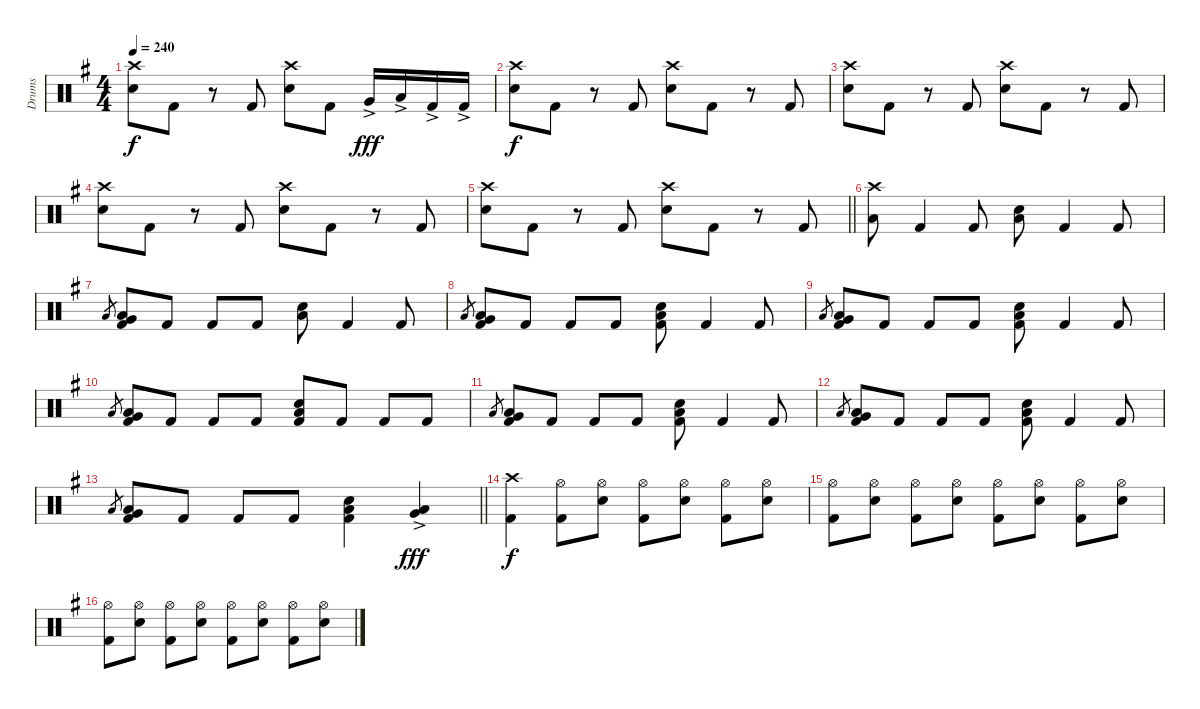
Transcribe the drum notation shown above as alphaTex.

\track ("Drums" "Drums") {instrument percussion}
\staff {score}
\articulation defaults
\ts (4 4)
\tempo 240
\clef neutral
\ks eminor
("Crash high (hit)" "Snare (hit) 2").8{dy f} "Kick (hit) 2".8 r.8 "Kick (hit) 2".8 ("Crash high (hit)" "Snare (hit) 2").8 "Kick (hit) 2".8 "Very Low Tom (hit)"{ac}.16{dy fff} "Low Tom (hit)"{ac}.16 "Kick (hit) 2"{ac}.16 "Kick (hit) 2"{ac}.16 |
("Crash high (hit)" "Snare (hit) 2").8{dy f} "Kick (hit) 2".8 r.8 "Kick (hit) 2".8 ("Crash high (hit)" "Snare (hit) 2").8 "Kick (hit) 2".8 r.8 "Kick (hit) 2".8 |
("Crash high (hit)" "Snare (hit) 2").8 "Kick (hit) 2".8 r.8 "Kick (hit) 2".8 ("Crash high (hit)" "Snare (hit) 2").8 "Kick (hit) 2".8 r.8 "Kick (hit) 2".8 |
("Crash high (hit)" "Snare (hit) 2").8 "Kick (hit) 2".8 r.8 "Kick (hit) 2".8 ("Crash high (hit)" "Snare (hit) 2").8 "Kick (hit) 2".8 r.8 "Kick (hit) 2".8 |
\barLineRight lightlight
("Crash high (hit)" "Snare (hit) 2").8 "Kick (hit) 2".8 r.8 "Kick (hit) 2".8 ("Crash high (hit)" "Snare (hit) 2").8 "Kick (hit) 2".8 r.8 "Kick (hit) 2".8 |
("Crash high (hit)" "Low Tom (hit)").8 "Kick (hit) 2".4 "Kick (hit) 2".8 ("Snare (hit) 2" "Low Tom (hit)").8 "Kick (hit) 2".4 "Kick (hit) 2".8 |
"Low Tom (hit)".8{gr} ("Low Tom (hit)" "Very Low Tom (hit)" "Kick (hit) 2").8 "Kick (hit) 2".8 "Kick (hit) 2".8 "Kick (hit) 2".8 ("Snare (hit) 2" "Low Tom (hit)").8 "Kick (hit) 2".4 "Kick (hit) 2".8 |
"Low Tom (hit)".8{gr} ("Low Tom (hit)" "Very Low Tom (hit)" "Kick (hit) 2").8 "Kick (hit) 2".8 "Kick (hit) 2".8 "Kick (hit) 2".8 ("Snare (hit) 2" "Low Tom (hit)" "Kick (hit) 2").8 "Kick (hit) 2".4 "Kick (hit) 2".8 |
"Low Tom (hit)".8{gr} ("Low Tom (hit)" "Very Low Tom (hit)" "Kick (hit) 2").8 "Kick (hit) 2".8 "Kick (hit) 2".8 "Kick (hit) 2".8 ("Snare (hit) 2" "Low Tom (hit)" "Kick (hit) 2").8 "Kick (hit) 2".4 "Kick (hit) 2".8 |
"Low Tom (hit)".8{gr} ("Low Tom (hit)" "Very Low Tom (hit)" "Kick (hit) 2").8 "Kick (hit) 2".8 "Kick (hit) 2".8 "Kick (hit) 2".8 ("Snare (hit) 2" "Low Tom (hit)" "Kick (hit) 2").8 "Kick (hit) 2".8 "Kick (hit) 2".8 "Kick (hit) 2".8 |
"Low Tom (hit)".8{gr} ("Low Tom (hit)" "Very Low Tom (hit)" "Kick (hit) 2").8 "Kick (hit) 2".8 "Kick (hit) 2".8 "Kick (hit) 2".8 ("Snare (hit) 2" "Low Tom (hit)" "Kick (hit) 2").8 "Kick (hit) 2".4 "Kick (hit) 2".8 |
"Low Tom (hit)".8{gr} ("Low Tom (hit)" "Very Low Tom (hit)" "Kick (hit) 2").8 "Kick (hit) 2".8 "Kick (hit) 2".8 "Kick (hit) 2".8 ("Snare (hit) 2" "Low Tom (hit)" "Kick (hit) 2").8 "Kick (hit) 2".4 "Kick (hit) 2".8 |
\barLineRight lightlight "Low Tom (hit)".8{gr}
("Low Tom (hit)" "Very Low Tom (hit)" "Kick (hit) 2").8 "Kick (hit) 2".8 "Kick (hit) 2".8 "Kick (hit) 2".8 ("Snare (hit) 2" "Low Tom (hit)" "Kick (hit) 2").4 ("Low Tom (hit)" "Very Low Tom (hit)"{ac}).4{dy fff} |
("Crash high (hit)" "Kick (hit) 2").4{dy f} ("Hi-Hat (open)" "Kick (hit) 2").8 ("Hi-Hat (open)" "Snare (hit) 2").8 ("Hi-Hat (open)" "Kick (hit) 2").8 ("Hi-Hat (open)" "Snare (hit) 2").8 ("Hi-Hat (open)" "Kick (hit) 2").8 ("Hi-Hat (open)" "Snare (hit) 2").8 |
("Hi-Hat (open)" "Kick (hit) 2").8 ("Hi-Hat (open)" "Snare (hit) 2").8 ("Hi-Hat (open)" "Kick (hit) 2").8 ("Hi-Hat (open)" "Snare (hit) 2").8 ("Hi-Hat (open)" "Kick (hit) 2").8 ("Hi-Hat (open)" "Snare (hit) 2").8 ("Hi-Hat (open)" "Kick (hit) 2").8 ("Hi-Hat (open)" "Snare (hit) 2").8 |
("Hi-Hat (open)" "Kick (hit) 2").8 ("Hi-Hat (open)" "Snare (hit) 2").8 ("Hi-Hat (open)" "Kick (hit) 2").8 ("Hi-Hat (open)" "Snare (hit) 2").8 ("Hi-Hat (open)" "Kick (hit) 2").8 ("Hi-Hat (open)" "Snare (hit) 2").8 ("Hi-Hat (open)" "Kick (hit) 2").8 ("Hi-Hat (open)" "Snare (hit) 2").8
